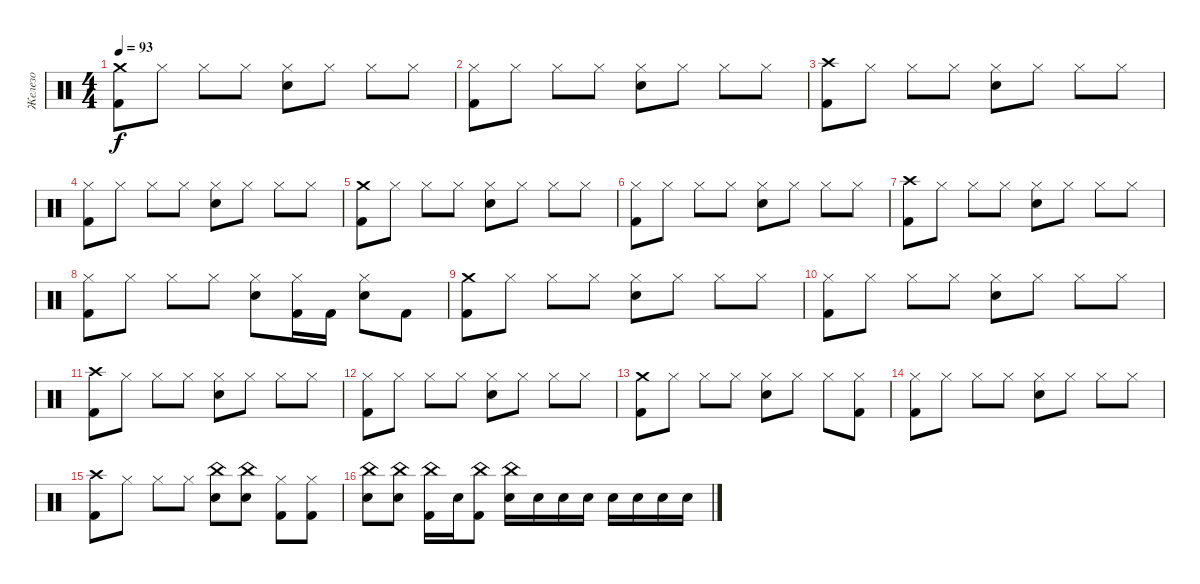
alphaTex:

\track ("Железо" "Железо") {instrument percussion}
\staff {score}
\articulation defaults
\ts (4 4)
\tempo 93
\clef neutral
\ks c
("Crash medium (hit)" "Kick (hit) 2").8{dy f} "Hi-Hat (closed)".8 "Hi-Hat (closed)".8 "Hi-Hat (closed)".8 ("Hi-Hat (closed)" "Electric Snare (hit)").8 "Hi-Hat (closed)".8 "Hi-Hat (closed)".8 "Hi-Hat (closed)".8 |
("Hi-Hat (closed)" "Kick (hit) 2").8 "Hi-Hat (closed)".8 "Hi-Hat (closed)".8 "Hi-Hat (closed)".8 ("Hi-Hat (closed)" "Electric Snare (hit)").8 "Hi-Hat (closed)".8 "Hi-Hat (closed)".8 "Hi-Hat (closed)".8 |
("Crash high (hit)" "Kick (hit) 2").8 "Hi-Hat (closed)".8 "Hi-Hat (closed)".8 "Hi-Hat (closed)".8 ("Hi-Hat (closed)" "Electric Snare (hit)").8 "Hi-Hat (closed)".8 "Hi-Hat (closed)".8 "Hi-Hat (closed)".8 |
("Hi-Hat (closed)" "Kick (hit) 2").8 "Hi-Hat (closed)".8 "Hi-Hat (closed)".8 "Hi-Hat (closed)".8 ("Hi-Hat (closed)" "Electric Snare (hit)").8 "Hi-Hat (closed)".8 "Hi-Hat (closed)".8 "Hi-Hat (closed)".8 |
("Crash medium (hit)" "Kick (hit) 2").8 "Hi-Hat (closed)".8 "Hi-Hat (closed)".8 "Hi-Hat (closed)".8 ("Hi-Hat (closed)" "Electric Snare (hit)").8 "Hi-Hat (closed)".8 "Hi-Hat (closed)".8 "Hi-Hat (closed)".8 |
("Hi-Hat (closed)" "Kick (hit) 2").8 "Hi-Hat (closed)".8 "Hi-Hat (closed)".8 "Hi-Hat (closed)".8 ("Hi-Hat (closed)" "Electric Snare (hit)").8 "Hi-Hat (closed)".8 "Hi-Hat (closed)".8 "Hi-Hat (closed)".8 |
("Crash high (hit)" "Kick (hit) 2").8 "Hi-Hat (closed)".8 "Hi-Hat (closed)".8 "Hi-Hat (closed)".8 ("Hi-Hat (closed)" "Electric Snare (hit)").8 "Hi-Hat (closed)".8 "Hi-Hat (closed)".8 "Hi-Hat (closed)".8 |
("Hi-Hat (closed)" "Kick (hit) 2").8 "Hi-Hat (closed)".8 "Hi-Hat (closed)".8 "Hi-Hat (closed)".8 ("Hi-Hat (closed)" "Electric Snare (hit)").8 ("Hi-Hat (closed)" "Kick (hit) 2").16 "Kick (hit) 2".16 ("Hi-Hat (closed)" "Electric Snare (hit)").8 "Kick (hit) 2".8 |
("Crash medium (hit)" "Kick (hit) 2").8 "Hi-Hat (closed)".8 "Hi-Hat (closed)".8 "Hi-Hat (closed)".8 ("Hi-Hat (closed)" "Electric Snare (hit)").8 "Hi-Hat (closed)".8 "Hi-Hat (closed)".8 "Hi-Hat (closed)".8 |
("Hi-Hat (closed)" "Kick (hit) 2").8 "Hi-Hat (closed)".8 "Hi-Hat (closed)".8 "Hi-Hat (closed)".8 ("Hi-Hat (closed)" "Electric Snare (hit)").8 "Hi-Hat (closed)".8 "Hi-Hat (closed)".8 "Hi-Hat (closed)".8 |
("Crash high (hit)" "Kick (hit) 2").8 "Hi-Hat (closed)".8 "Hi-Hat (closed)".8 "Hi-Hat (closed)".8 ("Hi-Hat (closed)" "Electric Snare (hit)").8 "Hi-Hat (closed)".8 "Hi-Hat (closed)".8 "Hi-Hat (closed)".8 |
("Hi-Hat (closed)" "Kick (hit) 2").8 "Hi-Hat (closed)".8 "Hi-Hat (closed)".8 "Hi-Hat (closed)".8 ("Hi-Hat (closed)" "Electric Snare (hit)").8 "Hi-Hat (closed)".8 "Hi-Hat (closed)".8 "Hi-Hat (closed)".8 |
("Crash medium (hit)" "Kick (hit) 2").8 "Hi-Hat (closed)".8 "Hi-Hat (closed)".8 "Hi-Hat (closed)".8 ("Hi-Hat (closed)" "Electric Snare (hit)").8 "Hi-Hat (closed)".8 "Hi-Hat (closed)".8 ("Hi-Hat (closed)" "Kick (hit) 2").8 |
("Hi-Hat (closed)" "Kick (hit) 2").8 "Hi-Hat (closed)".8 "Hi-Hat (closed)".8 "Hi-Hat (closed)".8 ("Hi-Hat (closed)" "Electric Snare (hit)").8 "Hi-Hat (closed)".8 "Hi-Hat (closed)".8 "Hi-Hat (closed)".8 |
("Crash high (hit)" "Kick (hit) 2").8 "Hi-Hat (closed)".8 "Hi-Hat (closed)".8 "Hi-Hat (closed)".8 ("China (hit)" "Electric Snare (hit)").8 ("China (hit)" "Electric Snare (hit)").8 ("Hi-Hat (closed)" "Kick (hit) 2").8 ("Hi-Hat (closed)" "Kick (hit) 2").8 |
("China (hit)" "Electric Snare (hit)").8 ("China (hit)" "Electric Snare (hit)").8 ("China (hit)" "Kick (hit) 2").16 "Electric Snare (hit)".16 ("China (hit)" "Kick (hit) 2").8 ("China (hit)" "Electric Snare (hit)").16 "Electric Snare (hit)".16 "Electric Snare (hit)".16 "Electric Snare (hit)".16 "Electric Snare (hit)".16 "Electric Snare (hit)".16 "Electric Snare (hit)".16 "Electric Snare (hit)".16
